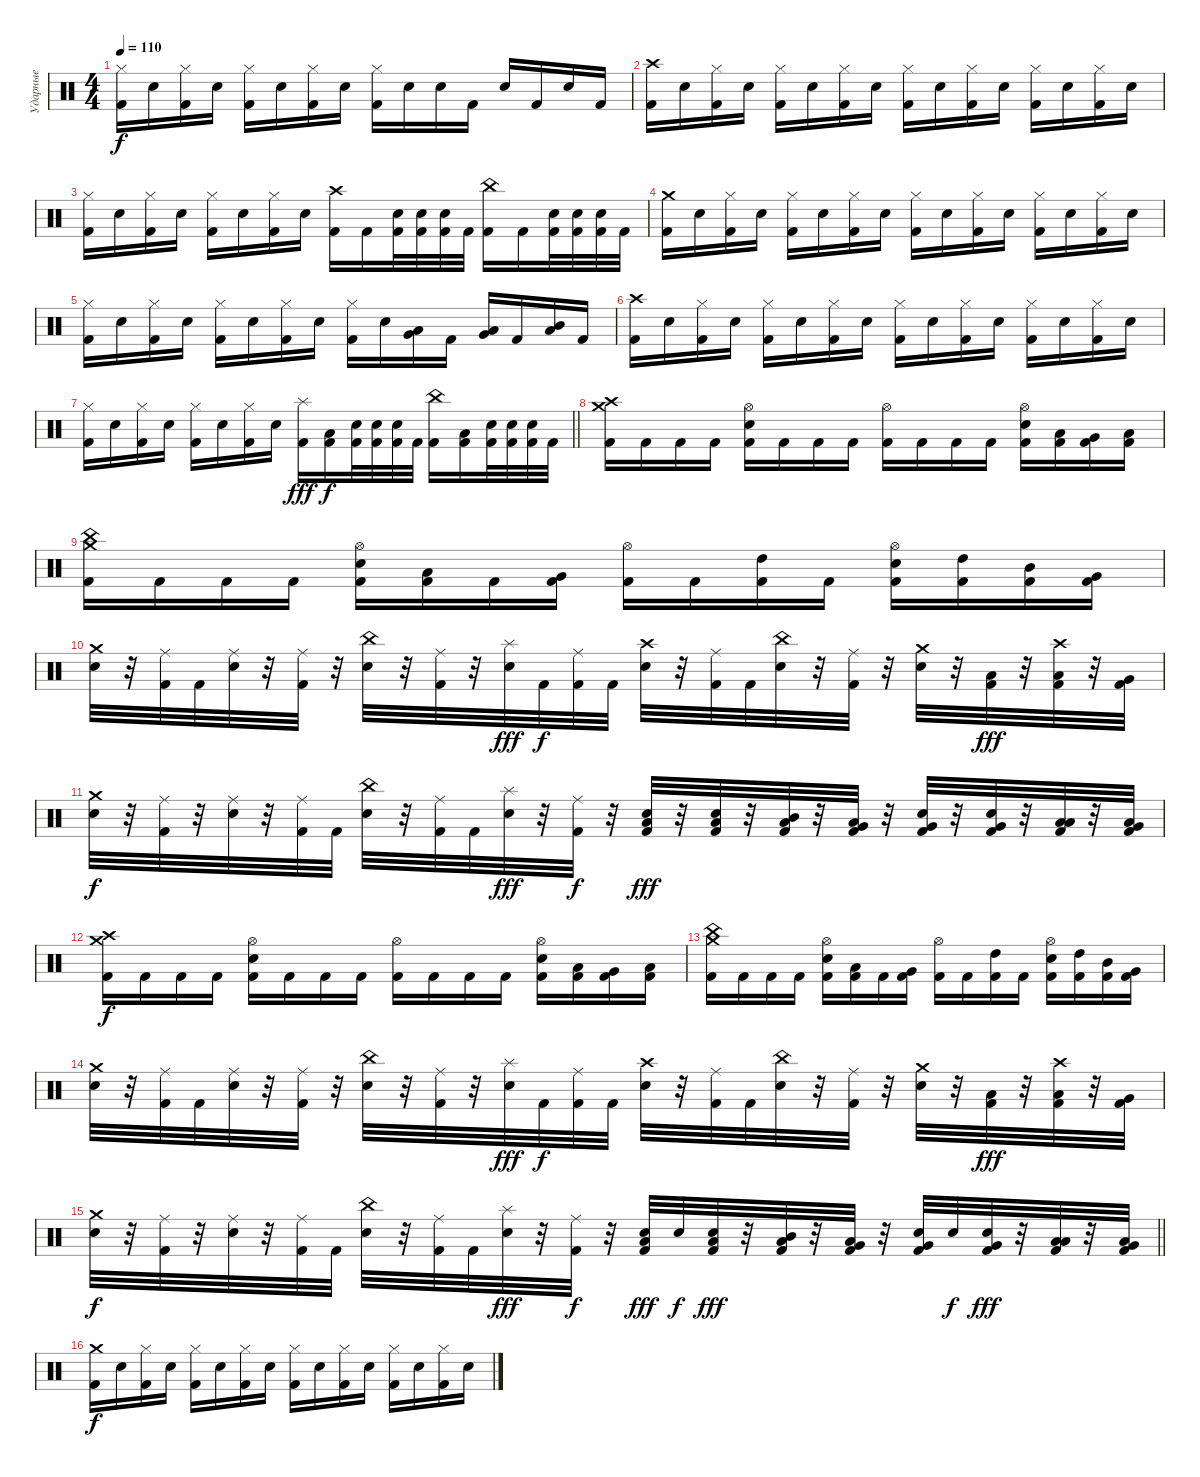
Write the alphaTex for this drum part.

\track ("Ударные" "Ударные") {instrument percussion}
\staff {score}
\articulation defaults
\ts (4 4)
\tempo 110
\clef neutral
\ks c
("Hi-Hat (closed)" "Kick (hit) 2").16{dy f} "Snare (hit) 2".16 ("Hi-Hat (closed)" "Kick (hit) 2").16 "Snare (hit) 2".16 ("Hi-Hat (closed)" "Kick (hit) 2").16 "Snare (hit) 2".16 ("Hi-Hat (closed)" "Kick (hit) 2").16 "Snare (hit) 2".16 ("Hi-Hat (closed)" "Kick (hit) 2").16 "Snare (hit) 2".16 "Snare (hit) 2".16 "Kick (hit) 2".16 "Snare (hit) 2".16 "Kick (hit) 2".16 "Snare (hit) 2".16 "Kick (hit) 2".16 |
("Crash high (hit)" "Kick (hit) 2").16 "Snare (hit) 2".16 ("Hi-Hat (closed)" "Kick (hit) 2").16 "Snare (hit) 2".16 ("Hi-Hat (closed)" "Kick (hit) 2").16 "Snare (hit) 2".16 ("Hi-Hat (closed)" "Kick (hit) 2").16 "Snare (hit) 2".16 ("Hi-Hat (closed)" "Kick (hit) 2").16 "Snare (hit) 2".16 ("Hi-Hat (closed)" "Kick (hit) 2").16 "Snare (hit) 2".16 ("Hi-Hat (closed)" "Kick (hit) 2").16 "Snare (hit) 2".16 ("Hi-Hat (closed)" "Kick (hit) 2").16 "Snare (hit) 2".16 |
("Hi-Hat (closed)" "Kick (hit) 2").16 "Snare (hit) 2".16 ("Hi-Hat (closed)" "Kick (hit) 2").16 "Snare (hit) 2".16 ("Hi-Hat (closed)" "Kick (hit) 2").16 "Snare (hit) 2".16 ("Hi-Hat (closed)" "Kick (hit) 2").16 "Snare (hit) 2".16 ("Crash high (hit)" "Kick (hit) 2").16 "Kick (hit) 2".16 ("Snare (hit) 2" "Kick (hit) 2").32 ("Snare (hit) 2" "Kick (hit) 2").32 ("Snare (hit) 2" "Kick (hit) 2").32 "Kick (hit) 2".32 ("China (hit)" "Kick (hit) 2").16 "Kick (hit) 2".16 ("Snare (hit) 2" "Kick (hit) 2").32 ("Snare (hit) 2" "Kick (hit) 2").32 ("Snare (hit) 2" "Kick (hit) 2").32 "Kick (hit) 2".32 |
("Crash medium (hit)" "Kick (hit) 2").16 "Snare (hit) 2".16 ("Hi-Hat (closed)" "Kick (hit) 2").16 "Snare (hit) 2".16 ("Hi-Hat (closed)" "Kick (hit) 2").16 "Snare (hit) 2".16 ("Hi-Hat (closed)" "Kick (hit) 2").16 "Snare (hit) 2".16 ("Hi-Hat (closed)" "Kick (hit) 2").16 "Snare (hit) 2".16 ("Hi-Hat (closed)" "Kick (hit) 2").16 "Snare (hit) 2".16 ("Hi-Hat (closed)" "Kick (hit) 2").16 "Snare (hit) 2".16 ("Hi-Hat (closed)" "Kick (hit) 2").16 "Snare (hit) 2".16 |
("Hi-Hat (closed)" "Kick (hit) 2").16 "Snare (hit) 2".16 ("Hi-Hat (closed)" "Kick (hit) 2").16 "Snare (hit) 2".16 ("Hi-Hat (closed)" "Kick (hit) 2").16 "Snare (hit) 2".16 ("Hi-Hat (closed)" "Kick (hit) 2").16 "Snare (hit) 2".16 ("Hi-Hat (closed)" "Kick (hit) 2").16 "Snare (hit) 2".16 ("Low Tom (hit)" "Very Low Tom (hit)").16 "Kick (hit) 2".16 ("Very Low Tom (hit)" "Low Floor Tom (hit)").16 "Kick (hit) 2".16 ("Low Floor Tom (hit)" "Mid Tom (hit)").16 "Kick (hit) 2".16 |
("Crash high (hit)" "Kick (hit) 2").16 "Snare (hit) 2".16 ("Hi-Hat (closed)" "Kick (hit) 2").16 "Snare (hit) 2".16 ("Hi-Hat (closed)" "Kick (hit) 2").16 "Snare (hit) 2".16 ("Hi-Hat (closed)" "Kick (hit) 2").16 "Snare (hit) 2".16 ("Hi-Hat (closed)" "Kick (hit) 2").16 "Snare (hit) 2".16 ("Hi-Hat (closed)" "Kick (hit) 2").16 "Snare (hit) 2".16 ("Hi-Hat (closed)" "Kick (hit) 2").16 "Snare (hit) 2".16 ("Hi-Hat (closed)" "Kick (hit) 2").16 "Snare (hit) 2".16 |
\barLineRight lightlight
("Hi-Hat (closed)" "Kick (hit) 2").16 "Snare (hit) 2".16 ("Hi-Hat (closed)" "Kick (hit) 2").16 "Snare (hit) 2".16 ("Hi-Hat (closed)" "Kick (hit) 2").16 "Snare (hit) 2".16 ("Hi-Hat (closed)" "Kick (hit) 2").16 "Snare (hit) 2".16 ("Splash (hit)" "Kick (hit) 2").16{dy fff} ("Low Tom (hit)" "Kick (hit) 2").16{dy f} ("Snare (hit) 2" "Kick (hit) 2").32 ("Snare (hit) 2" "Kick (hit) 2").32 ("Snare (hit) 2" "Kick (hit) 2").32 "Kick (hit) 2".32 ("China (hit)" "Kick (hit) 2").16 ("Low Floor Tom (hit)" "Kick (hit) 2").16 ("Snare (hit) 2" "Kick (hit) 2").32 ("Snare (hit) 2" "Kick (hit) 2").32 ("Snare (hit) 2" "Kick (hit) 2").32 "Kick (hit) 2".32 |
("Crash medium (hit)" "Crash high (hit)" "Kick (hit) 2").16 "Kick (hit) 2".16 "Kick (hit) 2".16 "Kick (hit) 2".16 ("Hi-Hat (open)" "Snare (hit) 2" "Kick (hit) 2").16 "Kick (hit) 2".16 "Kick (hit) 2".16 "Kick (hit) 2".16 ("Hi-Hat (open)" "Kick (hit) 2").16 "Kick (hit) 2".16 "Kick (hit) 2".16 "Kick (hit) 2".16 ("Hi-Hat (open)" "Snare (hit) 2" "Kick (hit) 2").16 ("Low Tom (hit)" "Kick (hit) 2").16 ("Very Low Tom (hit)" "Kick (hit) 2").16 ("Low Floor Tom (hit)" "Kick (hit) 2").16 |
("Crash medium (hit)" "China (hit)" "Kick (hit) 2").16 "Kick (hit) 2".16 "Kick (hit) 2".16 "Kick (hit) 2".16 ("Hi-Hat (open)" "Snare (hit) 2" "Kick (hit) 2").16 ("Low Tom (hit)" "Kick (hit) 2").16 "Kick (hit) 2".16 ("Very Low Tom (hit)" "Kick (hit) 2").16 ("Hi-Hat (open)" "Kick (hit) 2").16 "Kick (hit) 2".16 ("High Tom (hit)" "Kick (hit) 2").16 "Kick (hit) 2".16 ("Hi-Hat (open)" "Snare (hit) 2" "Kick (hit) 2").16 ("High Tom (hit)" "Kick (hit) 2").16 ("Mid Tom (hit)" "Kick (hit) 2").16 ("Very Low Tom (hit)" "Kick (hit) 2").16 |
("Crash medium (hit)" "Snare (hit) 2").32 r.32 ("Ride (middle)" "Kick (hit) 2").32 "Kick (hit) 2".32 ("Ride (middle)" "Snare (hit) 2").32 r.32 ("Ride (middle)" "Kick (hit) 2").32 r.32 ("China (hit)" "Snare (hit) 2").32 r.32 ("Ride (middle)" "Kick (hit) 2").32 r.32 ("Splash (hit)" "Snare (hit) 2").32{dy fff} "Kick (hit) 2".32{dy f} ("Ride (middle)" "Kick (hit) 2").32 "Kick (hit) 2".32 ("Crash high (hit)" "Snare (hit) 2").32 r.32 ("Ride (middle)" "Kick (hit) 2").32 "Kick (hit) 2".32 ("China (hit)" "Snare (hit) 2").32 r.32 ("Ride (middle)" "Kick (hit) 2").32 r.32 ("Crash medium (hit)" "Snare (hit) 2").32 r.32 ("Low Floor Tom (hit)" "Kick (hit) 2").32{dy fff} r.32 ("Crash high (hit)" "Low Tom (hit)" "Kick (hit) 2").32 r.32 ("Very Low Tom (hit)" "Kick (hit) 2").32 |
("Crash medium (hit)" "Snare (hit) 2").32{dy f} r.32 ("Ride (middle)" "Kick (hit) 2").32 r.32 ("Ride (middle)" "Snare (hit) 2").32 r.32 ("Ride (middle)" "Kick (hit) 2").32 "Kick (hit) 2".32 ("China (hit)" "Snare (hit) 2").32 r.32 ("Ride (middle)" "Kick (hit) 2").32 "Kick (hit) 2".32 ("Splash (hit)" "Snare (hit) 2").32{dy fff} r.32 ("Ride (middle)" "Kick (hit) 2").32{dy f} r.32 ("Snare (hit) 2" "Low Floor Tom (hit)" "Kick (hit) 2").32{dy fff} r.32 ("Snare (hit) 2" "Low Floor Tom (hit)" "Kick (hit) 2").32 r.32 ("Mid Tom (hit)" "Low Floor Tom (hit)" "Kick (hit) 2").32 r.32 ("Low Tom (hit)" "Very Low Tom (hit)" "Kick (hit) 2").32 r.32 ("Snare (hit) 2" "Very Low Tom (hit)" "Kick (hit) 2").32 r.32 ("Snare (hit) 2" "Very Low Tom (hit)" "Kick (hit) 2").32 r.32 ("Low Tom (hit)" "Low Floor Tom (hit)" "Kick (hit) 2").32 r.32 ("Very Low Tom (hit)" "Low Floor Tom (hit)" "Kick (hit) 2").32 |
("Crash medium (hit)" "Crash high (hit)" "Kick (hit) 2").16{dy f} "Kick (hit) 2".16 "Kick (hit) 2".16 "Kick (hit) 2".16 ("Hi-Hat (open)" "Snare (hit) 2" "Kick (hit) 2").16 "Kick (hit) 2".16 "Kick (hit) 2".16 "Kick (hit) 2".16 ("Hi-Hat (open)" "Kick (hit) 2").16 "Kick (hit) 2".16 "Kick (hit) 2".16 "Kick (hit) 2".16 ("Hi-Hat (open)" "Snare (hit) 2" "Kick (hit) 2").16 ("Low Tom (hit)" "Kick (hit) 2").16 ("Very Low Tom (hit)" "Kick (hit) 2").16 ("Low Floor Tom (hit)" "Kick (hit) 2").16 |
("Crash medium (hit)" "China (hit)" "Kick (hit) 2").16 "Kick (hit) 2".16 "Kick (hit) 2".16 "Kick (hit) 2".16 ("Hi-Hat (open)" "Snare (hit) 2" "Kick (hit) 2").16 ("Low Tom (hit)" "Kick (hit) 2").16 "Kick (hit) 2".16 ("Very Low Tom (hit)" "Kick (hit) 2").16 ("Hi-Hat (open)" "Kick (hit) 2").16 "Kick (hit) 2".16 ("High Tom (hit)" "Kick (hit) 2").16 "Kick (hit) 2".16 ("Hi-Hat (open)" "Snare (hit) 2" "Kick (hit) 2").16 ("High Tom (hit)" "Kick (hit) 2").16 ("Mid Tom (hit)" "Kick (hit) 2").16 ("Very Low Tom (hit)" "Kick (hit) 2").16 |
("Crash medium (hit)" "Snare (hit) 2").32 r.32 ("Ride (middle)" "Kick (hit) 2").32 "Kick (hit) 2".32 ("Ride (middle)" "Snare (hit) 2").32 r.32 ("Ride (middle)" "Kick (hit) 2").32 r.32 ("China (hit)" "Snare (hit) 2").32 r.32 ("Ride (middle)" "Kick (hit) 2").32 r.32 ("Splash (hit)" "Snare (hit) 2").32{dy fff} "Kick (hit) 2".32{dy f} ("Ride (middle)" "Kick (hit) 2").32 "Kick (hit) 2".32 ("Crash high (hit)" "Snare (hit) 2").32 r.32 ("Ride (middle)" "Kick (hit) 2").32 "Kick (hit) 2".32 ("China (hit)" "Snare (hit) 2").32 r.32 ("Ride (middle)" "Kick (hit) 2").32 r.32 ("Crash medium (hit)" "Snare (hit) 2").32 r.32 ("Low Floor Tom (hit)" "Kick (hit) 2").32{dy fff} r.32 ("Crash high (hit)" "Low Tom (hit)" "Kick (hit) 2").32 r.32 ("Very Low Tom (hit)" "Kick (hit) 2").32 |
\barLineRight lightlight
("Crash medium (hit)" "Snare (hit) 2").32{dy f} r.32 ("Ride (middle)" "Kick (hit) 2").32 r.32 ("Ride (middle)" "Snare (hit) 2").32 r.32 ("Ride (middle)" "Kick (hit) 2").32 "Kick (hit) 2".32 ("China (hit)" "Snare (hit) 2").32 r.32 ("Ride (middle)" "Kick (hit) 2").32 "Kick (hit) 2".32 ("Splash (hit)" "Snare (hit) 2").32{dy fff} r.32 ("Ride (middle)" "Kick (hit) 2").32{dy f} r.32 ("Snare (hit) 2" "Low Floor Tom (hit)" "Kick (hit) 2").32{dy fff} "Snare (hit) 2".32{dy f} ("Snare (hit) 2" "Low Floor Tom (hit)" "Kick (hit) 2").32{dy fff} r.32 ("Mid Tom (hit)" "Low Floor Tom (hit)" "Kick (hit) 2").32 r.32 ("Low Tom (hit)" "Very Low Tom (hit)" "Kick (hit) 2").32 r.32 ("Snare (hit) 2" "Very Low Tom (hit)" "Kick (hit) 2").32 "Snare (hit) 2".32{dy f} ("Snare (hit) 2" "Very Low Tom (hit)" "Kick (hit) 2").32{dy fff} r.32 ("Low Tom (hit)" "Low Floor Tom (hit)" "Kick (hit) 2").32 r.32 ("Very Low Tom (hit)" "Low Floor Tom (hit)" "Kick (hit) 2").32 |
("Crash medium (hit)" "Kick (hit) 2").16{dy f} "Snare (hit) 2".16 ("Hi-Hat (closed)" "Kick (hit) 2").16 "Snare (hit) 2".16 ("Hi-Hat (closed)" "Kick (hit) 2").16 "Snare (hit) 2".16 ("Hi-Hat (closed)" "Kick (hit) 2").16 "Snare (hit) 2".16 ("Hi-Hat (closed)" "Kick (hit) 2").16 "Snare (hit) 2".16 ("Hi-Hat (closed)" "Kick (hit) 2").16 "Snare (hit) 2".16 ("Hi-Hat (closed)" "Kick (hit) 2").16 "Snare (hit) 2".16 ("Hi-Hat (closed)" "Kick (hit) 2").16 "Snare (hit) 2".16
